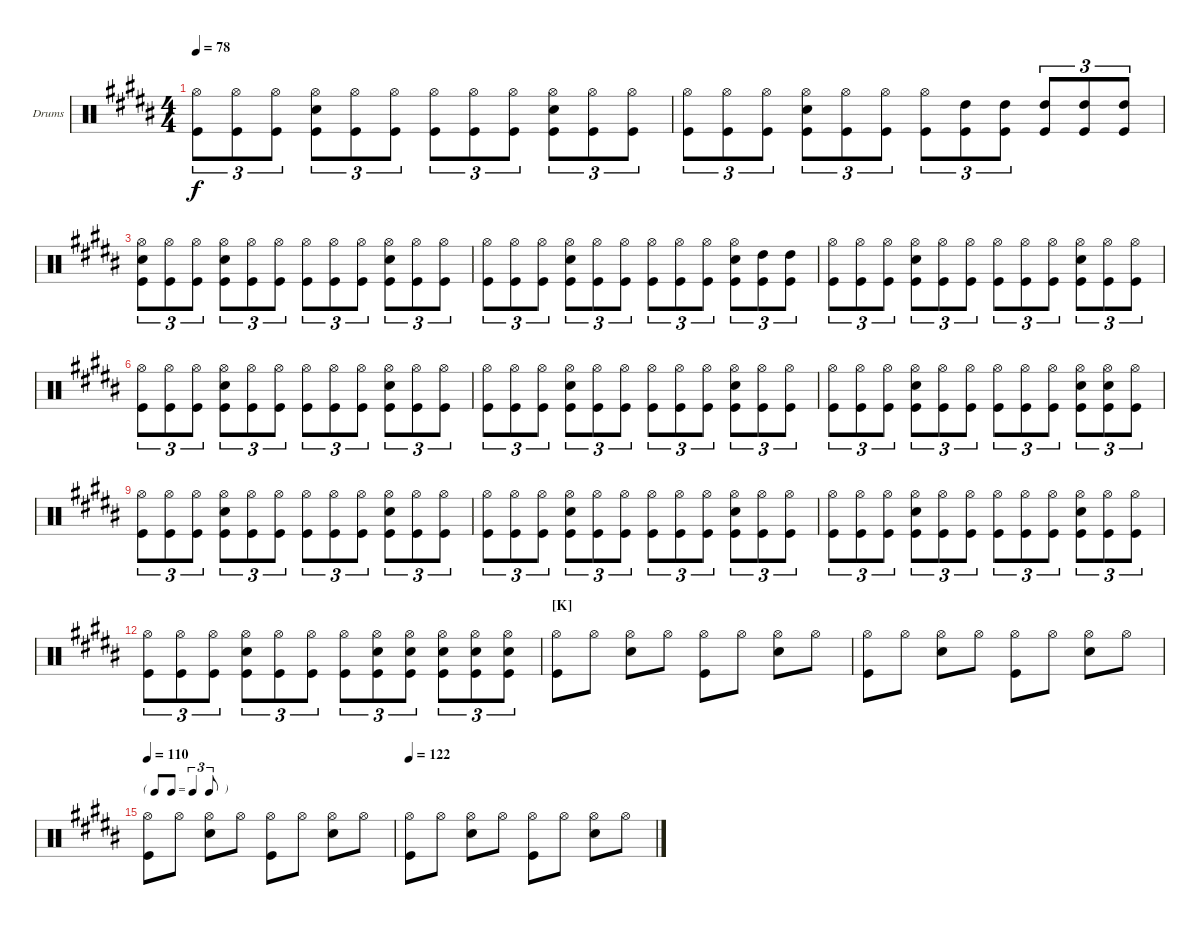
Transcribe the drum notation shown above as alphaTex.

\bracketExtendMode nobrackets
\firstSystemTrackNameOrientation horizontal
\otherSystemsTrackNameOrientation horizontal
\defaultBarNumberDisplay FirstOfSystem
\track ("Drumkit" "Drums") {instrument percussion}
\staff {score}
\articulation defaults
\ts (4 4)
\tempo 78
\clef neutral
\ks b
("Hi-Hat (open)" "Kick (hit)").8{tu (3 2) dy f} ("Hi-Hat (open)" "Kick (hit)").8{tu (3 2)} ("Hi-Hat (open)" "Kick (hit)").8{tu (3 2)} ("Hi-Hat (open)" "Snare (hit) 2" "Kick (hit)").8{tu (3 2)} ("Hi-Hat (open)" "Kick (hit)").8{tu (3 2)} ("Hi-Hat (open)" "Kick (hit)").8{tu (3 2)} ("Hi-Hat (open)" "Kick (hit)").8{tu (3 2)} ("Hi-Hat (open)" "Kick (hit)").8{tu (3 2)} ("Hi-Hat (open)" "Kick (hit)").8{tu (3 2)} ("Hi-Hat (open)" "Snare (hit) 2" "Kick (hit)").8{tu (3 2)} ("Hi-Hat (open)" "Kick (hit)").8{tu (3 2)} ("Hi-Hat (open)" "Kick (hit)").8{tu (3 2)} |
("Hi-Hat (open)" "Kick (hit)").8{tu (3 2)} ("Hi-Hat (open)" "Kick (hit)").8{tu (3 2)} ("Hi-Hat (open)" "Kick (hit)").8{tu (3 2)} ("Hi-Hat (open)" "Snare (hit) 2" "Kick (hit)").8{tu (3 2)} ("Hi-Hat (open)" "Kick (hit)").8{tu (3 2)} ("Hi-Hat (open)" "Kick (hit)").8{tu (3 2)} ("Hi-Hat (open)" "Kick (hit)").8{tu (3 2)} ("High Tom (hit)" "Kick (hit)").8{tu (3 2)} ("High Tom (hit)" "Kick (hit)").8{tu (3 2)} ("High Tom (hit)" "Kick (hit)").8{tu (3 2)} ("High Tom (hit)" "Kick (hit)").8{tu (3 2)} ("High Tom (hit)" "Kick (hit)").8{tu (3 2)} |
("Hi-Hat (open)" "Snare (hit) 2" "Kick (hit)").8{tu (3 2)} ("Hi-Hat (open)" "Kick (hit)").8{tu (3 2)} ("Hi-Hat (open)" "Kick (hit)").8{tu (3 2)} ("Hi-Hat (open)" "Snare (hit) 2" "Kick (hit)").8{tu (3 2)} ("Hi-Hat (open)" "Kick (hit)").8{tu (3 2)} ("Hi-Hat (open)" "Kick (hit)").8{tu (3 2)} ("Hi-Hat (open)" "Kick (hit)").8{tu (3 2)} ("Hi-Hat (open)" "Kick (hit)").8{tu (3 2)} ("Hi-Hat (open)" "Kick (hit)").8{tu (3 2)} ("Hi-Hat (open)" "Snare (hit) 2" "Kick (hit)").8{tu (3 2)} ("Hi-Hat (open)" "Kick (hit)").8{tu (3 2)} ("Hi-Hat (open)" "Kick (hit)").8{tu (3 2)} |
("Hi-Hat (open)" "Kick (hit)").8{tu (3 2)} ("Hi-Hat (open)" "Kick (hit)").8{tu (3 2)} ("Hi-Hat (open)" "Kick (hit)").8{tu (3 2)} ("Hi-Hat (open)" "Snare (hit) 2" "Kick (hit)").8{tu (3 2)} ("Hi-Hat (open)" "Kick (hit)").8{tu (3 2)} ("Hi-Hat (open)" "Kick (hit)").8{tu (3 2)} ("Hi-Hat (open)" "Kick (hit)").8{tu (3 2)} ("Hi-Hat (open)" "Kick (hit)").8{tu (3 2)} ("Hi-Hat (open)" "Kick (hit)").8{tu (3 2)} ("Hi-Hat (open)" "Snare (hit) 2" "Kick (hit)").8{tu (3 2)} ("High Tom (hit)" "Kick (hit)").8{tu (3 2)} ("High Tom (hit)" "Kick (hit)").8{tu (3 2)} |
("Hi-Hat (open)" "Kick (hit)").8{tu (3 2)} ("Hi-Hat (open)" "Kick (hit)").8{tu (3 2)} ("Hi-Hat (open)" "Kick (hit)").8{tu (3 2)} ("Hi-Hat (open)" "Snare (hit) 2" "Kick (hit)").8{tu (3 2)} ("Hi-Hat (open)" "Kick (hit)").8{tu (3 2)} ("Hi-Hat (open)" "Kick (hit)").8{tu (3 2)} ("Hi-Hat (open)" "Kick (hit)").8{tu (3 2)} ("Hi-Hat (open)" "Kick (hit)").8{tu (3 2)} ("Hi-Hat (open)" "Kick (hit)").8{tu (3 2)} ("Hi-Hat (open)" "Snare (hit) 2" "Kick (hit)").8{tu (3 2)} ("Hi-Hat (open)" "Kick (hit)").8{tu (3 2)} ("Hi-Hat (open)" "Kick (hit)").8{tu (3 2)} |
("Hi-Hat (open)" "Kick (hit)").8{tu (3 2)} ("Hi-Hat (open)" "Kick (hit)").8{tu (3 2)} ("Hi-Hat (open)" "Kick (hit)").8{tu (3 2)} ("Hi-Hat (open)" "Snare (hit) 2" "Kick (hit)").8{tu (3 2)} ("Hi-Hat (open)" "Kick (hit)").8{tu (3 2)} ("Hi-Hat (open)" "Kick (hit)").8{tu (3 2)} ("Hi-Hat (open)" "Kick (hit)").8{tu (3 2)} ("Hi-Hat (open)" "Kick (hit)").8{tu (3 2)} ("Hi-Hat (open)" "Kick (hit)").8{tu (3 2)} ("Hi-Hat (open)" "Snare (hit) 2" "Kick (hit)").8{tu (3 2)} ("Hi-Hat (open)" "Kick (hit)").8{tu (3 2)} ("Hi-Hat (open)" "Kick (hit)").8{tu (3 2)} |
("Hi-Hat (open)" "Kick (hit)").8{tu (3 2)} ("Hi-Hat (open)" "Kick (hit)").8{tu (3 2)} ("Hi-Hat (open)" "Kick (hit)").8{tu (3 2)} ("Hi-Hat (open)" "Snare (hit) 2" "Kick (hit)").8{tu (3 2)} ("Hi-Hat (open)" "Kick (hit)").8{tu (3 2)} ("Hi-Hat (open)" "Kick (hit)").8{tu (3 2)} ("Hi-Hat (open)" "Kick (hit)").8{tu (3 2)} ("Hi-Hat (open)" "Kick (hit)").8{tu (3 2)} ("Hi-Hat (open)" "Kick (hit)").8{tu (3 2)} ("Hi-Hat (open)" "Snare (hit) 2" "Kick (hit)").8{tu (3 2)} ("Hi-Hat (open)" "Kick (hit)").8{tu (3 2)} ("Hi-Hat (open)" "Kick (hit)").8{tu (3 2)} |
("Hi-Hat (open)" "Kick (hit)").8{tu (3 2)} ("Hi-Hat (open)" "Kick (hit)").8{tu (3 2)} ("Hi-Hat (open)" "Kick (hit)").8{tu (3 2)} ("Hi-Hat (open)" "Snare (hit) 2" "Kick (hit)").8{tu (3 2)} ("Hi-Hat (open)" "Kick (hit)").8{tu (3 2)} ("Hi-Hat (open)" "Kick (hit)").8{tu (3 2)} ("Hi-Hat (open)" "Kick (hit)").8{tu (3 2)} ("Hi-Hat (open)" "Kick (hit)").8{tu (3 2)} ("Hi-Hat (open)" "Kick (hit)").8{tu (3 2)} ("Hi-Hat (open)" "Snare (hit) 2" "Kick (hit)").8{tu (3 2)} ("Hi-Hat (open)" "Snare (hit) 2" "Kick (hit)").8{tu (3 2)} ("Hi-Hat (open)" "Kick (hit)").8{tu (3 2)} |
("Hi-Hat (open)" "Kick (hit)").8{tu (3 2)} ("Hi-Hat (open)" "Kick (hit)").8{tu (3 2)} ("Hi-Hat (open)" "Kick (hit)").8{tu (3 2)} ("Hi-Hat (open)" "Snare (hit) 2" "Kick (hit)").8{tu (3 2)} ("Hi-Hat (open)" "Kick (hit)").8{tu (3 2)} ("Hi-Hat (open)" "Kick (hit)").8{tu (3 2)} ("Hi-Hat (open)" "Kick (hit)").8{tu (3 2)} ("Hi-Hat (open)" "Kick (hit)").8{tu (3 2)} ("Hi-Hat (open)" "Kick (hit)").8{tu (3 2)} ("Hi-Hat (open)" "Snare (hit) 2" "Kick (hit)").8{tu (3 2)} ("Hi-Hat (open)" "Kick (hit)").8{tu (3 2)} ("Hi-Hat (open)" "Kick (hit)").8{tu (3 2)} |
("Hi-Hat (open)" "Kick (hit)").8{tu (3 2)} ("Hi-Hat (open)" "Kick (hit)").8{tu (3 2)} ("Hi-Hat (open)" "Kick (hit)").8{tu (3 2)} ("Hi-Hat (open)" "Snare (hit) 2" "Kick (hit)").8{tu (3 2)} ("Hi-Hat (open)" "Kick (hit)").8{tu (3 2)} ("Hi-Hat (open)" "Kick (hit)").8{tu (3 2)} ("Hi-Hat (open)" "Kick (hit)").8{tu (3 2)} ("Hi-Hat (open)" "Kick (hit)").8{tu (3 2)} ("Hi-Hat (open)" "Kick (hit)").8{tu (3 2)} ("Hi-Hat (open)" "Snare (hit) 2" "Kick (hit)").8{tu (3 2)} ("Hi-Hat (open)" "Kick (hit)").8{tu (3 2)} ("Hi-Hat (open)" "Kick (hit)").8{tu (3 2)} |
("Hi-Hat (open)" "Kick (hit)").8{tu (3 2)} ("Hi-Hat (open)" "Kick (hit)").8{tu (3 2)} ("Hi-Hat (open)" "Kick (hit)").8{tu (3 2)} ("Hi-Hat (open)" "Snare (hit) 2" "Kick (hit)").8{tu (3 2)} ("Hi-Hat (open)" "Kick (hit)").8{tu (3 2)} ("Hi-Hat (open)" "Kick (hit)").8{tu (3 2)} ("Hi-Hat (open)" "Kick (hit)").8{tu (3 2)} ("Hi-Hat (open)" "Kick (hit)").8{tu (3 2)} ("Hi-Hat (open)" "Kick (hit)").8{tu (3 2)} ("Hi-Hat (open)" "Snare (hit) 2" "Kick (hit)").8{tu (3 2)} ("Hi-Hat (open)" "Kick (hit)").8{tu (3 2)} ("Hi-Hat (open)" "Kick (hit)").8{tu (3 2)} |
("Hi-Hat (open)" "Kick (hit)").8{tu (3 2)} ("Hi-Hat (open)" "Kick (hit)").8{tu (3 2)} ("Hi-Hat (open)" "Kick (hit)").8{tu (3 2)} ("Hi-Hat (open)" "Snare (hit) 2" "Kick (hit)").8{tu (3 2)} ("Hi-Hat (open)" "Kick (hit)").8{tu (3 2)} ("Hi-Hat (open)" "Kick (hit)").8{tu (3 2)} ("Hi-Hat (open)" "Kick (hit)").8{tu (3 2)} ("Hi-Hat (open)" "Snare (hit) 2" "Kick (hit)").8{tu (3 2)} ("Hi-Hat (open)" "Snare (hit) 2" "Kick (hit)").8{tu (3 2)} ("Hi-Hat (open)" "Snare (hit) 2" "Kick (hit)").8{tu (3 2)} ("Hi-Hat (open)" "Snare (hit) 2" "Kick (hit)").8{tu (3 2)} ("Hi-Hat (open)" "Snare (hit) 2" "Kick (hit)").8{tu (3 2)} |
\section ("K" "")
("Hi-Hat (open)" "Kick (hit)").8 "Hi-Hat (open)".8 ("Hi-Hat (open)" "Snare (hit) 2").8 "Hi-Hat (open)".8 ("Hi-Hat (open)" "Kick (hit)").8 "Hi-Hat (open)".8 ("Hi-Hat (open)" "Snare (hit) 2").8 "Hi-Hat (open)".8 |
("Hi-Hat (open)" "Kick (hit)").8 "Hi-Hat (open)".8 ("Hi-Hat (open)" "Snare (hit) 2").8 "Hi-Hat (open)".8 ("Hi-Hat (open)" "Kick (hit)").8 "Hi-Hat (open)".8 ("Hi-Hat (open)" "Snare (hit) 2").8 "Hi-Hat (open)".8 |
\tf triplet8th
\tempo 110
("Hi-Hat (open)" "Kick (hit)").8 "Hi-Hat (open)".8 ("Hi-Hat (open)" "Snare (hit) 2").8 "Hi-Hat (open)".8 ("Hi-Hat (open)" "Kick (hit)").8 "Hi-Hat (open)".8 ("Hi-Hat (open)" "Snare (hit) 2").8 "Hi-Hat (open)".8 |
\tempo 122
("Hi-Hat (open)" "Kick (hit)").8 "Hi-Hat (open)".8 ("Hi-Hat (open)" "Snare (hit) 2").8 "Hi-Hat (open)".8 ("Hi-Hat (open)" "Kick (hit)").8 "Hi-Hat (open)".8 ("Hi-Hat (open)" "Snare (hit) 2").8 "Hi-Hat (open)".8
